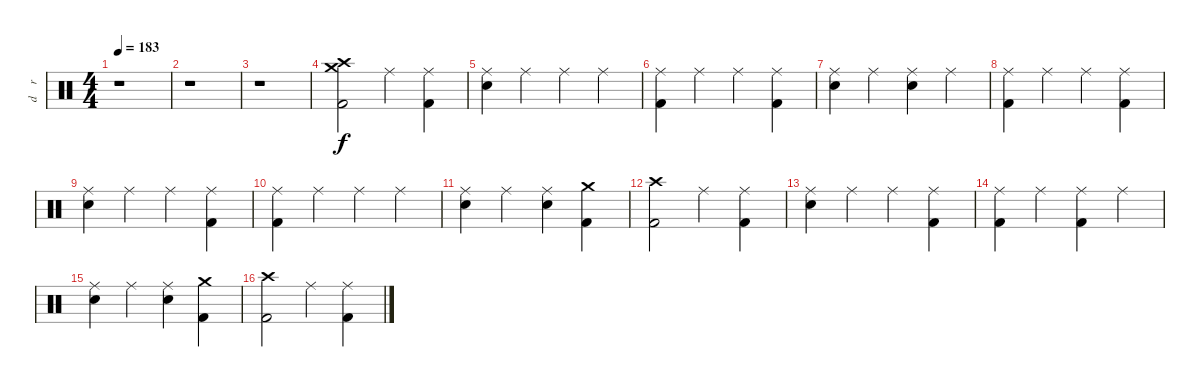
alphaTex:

\track ("d    r     u    m    s" "d    r    ") {instrument percussion}
\staff {score}
\articulation defaults
\ts (4 4)
\tempo 183
\clef neutral
\ks c
r.1{dy f} |
r.1 |
r.1 |
("Crash high (hit)" "Crash medium (hit)" "Kick (hit) 2").2 "Ride (middle)".4 ("Ride (middle)" "Kick (hit) 2").4 |
("Ride (middle)" "Snare (hit) 2").4 "Ride (middle)".4 "Ride (middle)".4 "Ride (middle)".4 |
("Ride (middle)" "Kick (hit) 2").4 "Ride (middle)".4 "Ride (middle)".4 ("Ride (middle)" "Kick (hit) 2").4 |
("Ride (middle)" "Snare (hit) 2").4 "Ride (middle)".4 ("Ride (middle)" "Snare (hit) 2").4 "Ride (middle)".4 |
("Ride (middle)" "Kick (hit) 2").4 "Ride (middle)".4 "Ride (middle)".4 ("Ride (middle)" "Kick (hit) 2").4 |
("Ride (middle)" "Snare (hit) 2").4 "Ride (middle)".4 "Ride (middle)".4 ("Ride (middle)" "Kick (hit) 2").4 |
("Ride (middle)" "Kick (hit) 2").4 "Ride (middle)".4 "Ride (middle)".4 "Ride (middle)".4 |
("Ride (middle)" "Snare (hit) 2").4 "Ride (middle)".4 ("Ride (middle)" "Snare (hit) 2").4 ("Crash medium (hit)" "Kick (hit) 2").4 |
("Crash high (hit)" "Kick (hit) 2").2 "Ride (middle)".4 ("Ride (middle)" "Kick (hit) 2").4 |
("Ride (middle)" "Snare (hit) 2").4 "Ride (middle)".4 "Ride (middle)".4 ("Ride (middle)" "Kick (hit) 2").4 |
("Ride (middle)" "Kick (hit) 2").4 "Ride (middle)".4 ("Ride (middle)" "Kick (hit) 2").4 "Ride (middle)".4 |
("Ride (middle)" "Snare (hit) 2").4 "Ride (middle)".4 ("Ride (middle)" "Snare (hit) 2").4 ("Crash medium (hit)" "Kick (hit) 2").4 |
("Crash high (hit)" "Kick (hit) 2").2 "Ride (middle)".4 ("Ride (middle)" "Kick (hit) 2").4
